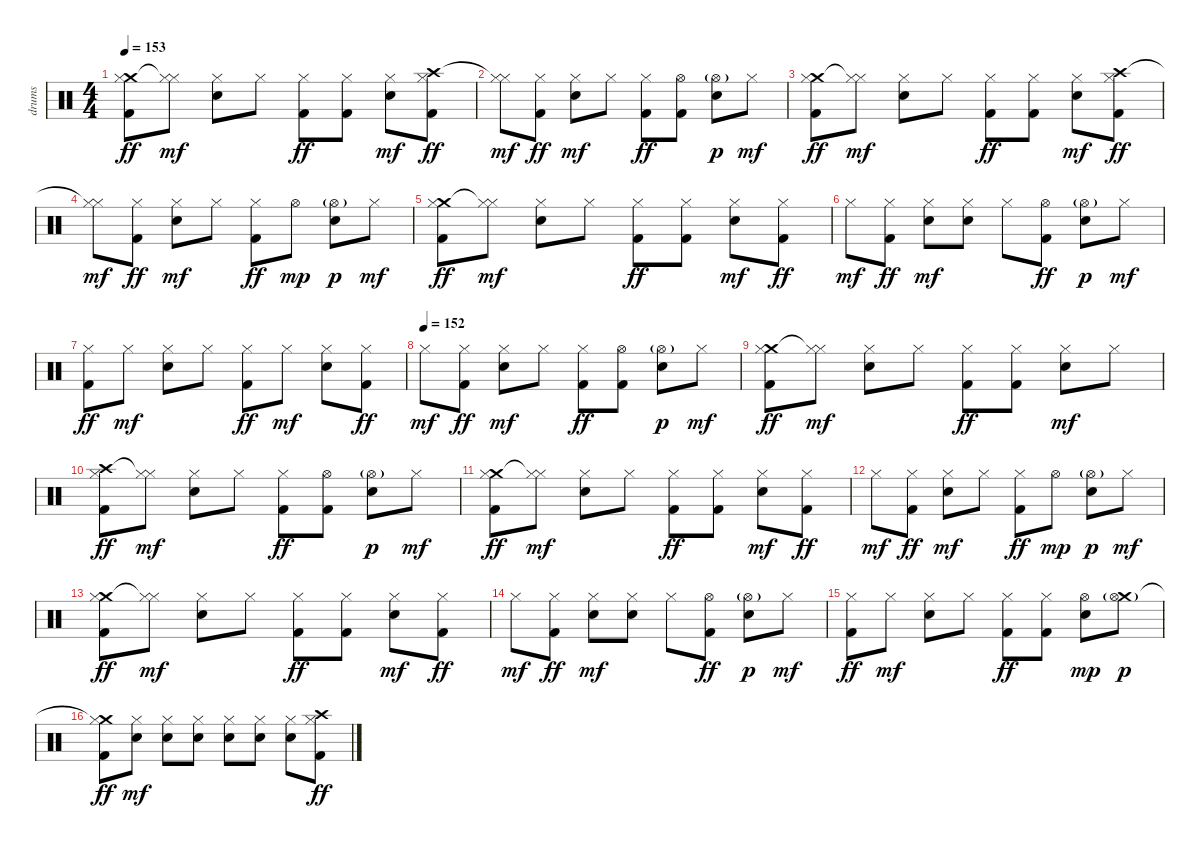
\track ("drums" "drums") {instrument percussion}
\staff {score}
\articulation defaults
\ts (4 4)
\tempo 153
\clef neutral
\ks c
("Crash medium (hit)" "Hi-Hat (closed)" "Kick (hit) 2").8{dy ff} ("Hi-Hat (closed)"{t} "Hi-Hat (closed)").8{dy mf} ("Hi-Hat (closed)" "Electric Snare (hit)").8 "Hi-Hat (closed)".8 ("Hi-Hat (closed)" "Kick (hit) 2").8{dy ff} ("Hi-Hat (closed)" "Kick (hit) 2").8 ("Hi-Hat (closed)" "Electric Snare (hit)").8{dy mf} ("Crash high (hit)" "Hi-Hat (closed)" "Kick (hit) 2").8{dy ff} |
("Hi-Hat (closed)"{t} "Hi-Hat (closed)").8{dy mf} ("Hi-Hat (closed)" "Kick (hit) 2").8{dy ff} ("Hi-Hat (closed)" "Electric Snare (hit)").8{dy mf} "Hi-Hat (closed)".8 ("Hi-Hat (closed)" "Kick (hit) 2").8{dy ff} ("Hi-Hat (open)" "Kick (hit) 2").8 ("Hi-Hat (open)"{g} "Electric Snare (hit)").8{dy p} "Hi-Hat (closed)".8{dy mf} |
("Crash medium (hit)" "Hi-Hat (closed)" "Kick (hit) 2").8{dy ff} ("Hi-Hat (closed)"{t} "Hi-Hat (closed)").8{dy mf} ("Hi-Hat (closed)" "Electric Snare (hit)").8 "Hi-Hat (closed)".8 ("Hi-Hat (closed)" "Kick (hit) 2").8{dy ff} ("Hi-Hat (closed)" "Kick (hit) 2").8 ("Hi-Hat (closed)" "Electric Snare (hit)").8{dy mf} ("Crash high (hit)" "Hi-Hat (closed)" "Kick (hit) 2").8{dy ff} |
("Hi-Hat (closed)"{t} "Hi-Hat (closed)").8{dy mf} ("Hi-Hat (closed)" "Kick (hit) 2").8{dy ff} ("Hi-Hat (closed)" "Electric Snare (hit)").8{dy mf} "Hi-Hat (closed)".8 ("Hi-Hat (closed)" "Kick (hit) 2").8{dy ff} "Hi-Hat (open)".8{dy mp} ("Hi-Hat (open)"{g} "Electric Snare (hit)").8{dy p} "Hi-Hat (closed)".8{dy mf} |
("Crash medium (hit)" "Hi-Hat (closed)" "Kick (hit) 2").8{dy ff} ("Hi-Hat (closed)"{t} "Hi-Hat (closed)").8{dy mf} ("Hi-Hat (closed)" "Electric Snare (hit)").8 "Hi-Hat (closed)".8 ("Hi-Hat (closed)" "Kick (hit) 2").8{dy ff} ("Hi-Hat (closed)" "Kick (hit) 2").8 ("Hi-Hat (closed)" "Electric Snare (hit)").8{dy mf} ("Hi-Hat (closed)" "Kick (hit) 2").8{dy ff} |
"Hi-Hat (closed)".8{dy mf} ("Hi-Hat (closed)" "Kick (hit) 2").8{dy ff} ("Hi-Hat (closed)" "Electric Snare (hit)").8{dy mf} ("Hi-Hat (closed)" "Electric Snare (hit)").8 "Hi-Hat (closed)".8 ("Hi-Hat (open)" "Kick (hit) 2").8{dy ff} ("Hi-Hat (open)"{g} "Electric Snare (hit)").8{dy p} "Hi-Hat (closed)".8{dy mf} |
("Hi-Hat (closed)" "Kick (hit) 2").8{dy ff} "Hi-Hat (closed)".8{dy mf} ("Hi-Hat (closed)" "Electric Snare (hit)").8 "Hi-Hat (closed)".8 ("Hi-Hat (closed)" "Kick (hit) 2").8{dy ff} "Hi-Hat (closed)".8{dy mf} ("Hi-Hat (closed)" "Electric Snare (hit)").8 ("Hi-Hat (closed)" "Kick (hit) 2").8{dy ff} |
\tempo (152)
"Hi-Hat (closed)".8{dy mf} ("Hi-Hat (closed)" "Kick (hit) 2").8{dy ff} ("Hi-Hat (closed)" "Electric Snare (hit)").8{dy mf} "Hi-Hat (closed)".8 ("Hi-Hat (closed)" "Kick (hit) 2").8{dy ff} ("Hi-Hat (open)" "Kick (hit) 2").8 ("Hi-Hat (open)"{g} "Electric Snare (hit)").8{dy p} "Hi-Hat (closed)".8{dy mf} |
("Crash medium (hit)" "Hi-Hat (closed)" "Kick (hit) 2").8{dy ff} ("Hi-Hat (closed)"{t} "Hi-Hat (closed)").8{dy mf} ("Hi-Hat (closed)" "Electric Snare (hit)").8 "Hi-Hat (closed)".8 ("Hi-Hat (closed)" "Kick (hit) 2").8{dy ff} ("Hi-Hat (closed)" "Kick (hit) 2").8 ("Hi-Hat (closed)" "Electric Snare (hit)").8{dy mf} "Hi-Hat (closed)".8 |
("Crash high (hit)" "Hi-Hat (closed)" "Kick (hit) 2").8{dy ff} ("Hi-Hat (closed)"{t} "Hi-Hat (closed)").8{dy mf} ("Hi-Hat (closed)" "Electric Snare (hit)").8 "Hi-Hat (closed)".8 ("Hi-Hat (closed)" "Kick (hit) 2").8{dy ff} ("Hi-Hat (open)" "Kick (hit) 2").8 ("Hi-Hat (open)"{g} "Electric Snare (hit)").8{dy p} "Hi-Hat (closed)".8{dy mf} |
("Crash medium (hit)" "Hi-Hat (closed)" "Kick (hit) 2").8{dy ff} ("Hi-Hat (closed)"{t} "Hi-Hat (closed)").8{dy mf} ("Hi-Hat (closed)" "Electric Snare (hit)").8 "Hi-Hat (closed)".8 ("Hi-Hat (closed)" "Kick (hit) 2").8{dy ff} ("Hi-Hat (closed)" "Kick (hit) 2").8 ("Hi-Hat (closed)" "Electric Snare (hit)").8{dy mf} ("Hi-Hat (closed)" "Kick (hit) 2").8{dy ff} |
"Hi-Hat (closed)".8{dy mf} ("Hi-Hat (closed)" "Kick (hit) 2").8{dy ff} ("Hi-Hat (closed)" "Electric Snare (hit)").8{dy mf} "Hi-Hat (closed)".8 ("Hi-Hat (closed)" "Kick (hit) 2").8{dy ff} "Hi-Hat (open)".8{dy mp} ("Hi-Hat (open)"{g} "Electric Snare (hit)").8{dy p} "Hi-Hat (closed)".8{dy mf} |
("Crash medium (hit)" "Hi-Hat (closed)" "Kick (hit) 2").8{dy ff} ("Hi-Hat (closed)"{t} "Hi-Hat (closed)").8{dy mf} ("Hi-Hat (closed)" "Electric Snare (hit)").8 "Hi-Hat (closed)".8 ("Hi-Hat (closed)" "Kick (hit) 2").8{dy ff} ("Hi-Hat (closed)" "Kick (hit) 2").8 ("Hi-Hat (closed)" "Electric Snare (hit)").8{dy mf} ("Hi-Hat (closed)" "Kick (hit) 2").8{dy ff} |
"Hi-Hat (closed)".8{dy mf} ("Hi-Hat (closed)" "Kick (hit) 2").8{dy ff} ("Hi-Hat (closed)" "Electric Snare (hit)").8{dy mf} ("Hi-Hat (closed)" "Electric Snare (hit)").8 "Hi-Hat (closed)".8 ("Hi-Hat (open)" "Kick (hit) 2").8{dy ff} ("Hi-Hat (open)"{g} "Electric Snare (hit)").8{dy p} "Hi-Hat (closed)".8{dy mf} |
("Hi-Hat (closed)" "Kick (hit) 2").8{dy ff} "Hi-Hat (closed)".8{dy mf} ("Hi-Hat (closed)" "Electric Snare (hit)").8 "Hi-Hat (closed)".8 ("Hi-Hat (closed)" "Kick (hit) 2").8{dy ff} ("Hi-Hat (closed)" "Kick (hit) 2").8 ("Hi-Hat (open)" "Electric Snare (hit)").8{dy mp} ("Crash medium (hit)" "Hi-Hat (open)"{g}).8{dy p} |
("Crash medium (hit)"{t} "Hi-Hat (closed)" "Kick (hit) 2").8{dy ff} ("Hi-Hat (closed)" "Electric Snare (hit)").8{dy mf} ("Hi-Hat (closed)" "Electric Snare (hit)").8 ("Hi-Hat (closed)" "Electric Snare (hit)").8 ("Hi-Hat (closed)" "Electric Snare (hit)").8 ("Hi-Hat (closed)" "Electric Snare (hit)").8 ("Hi-Hat (closed)" "Electric Snare (hit)").8 ("Crash high (hit)" "Hi-Hat (closed)" "Kick (hit) 2").8{dy ff}
